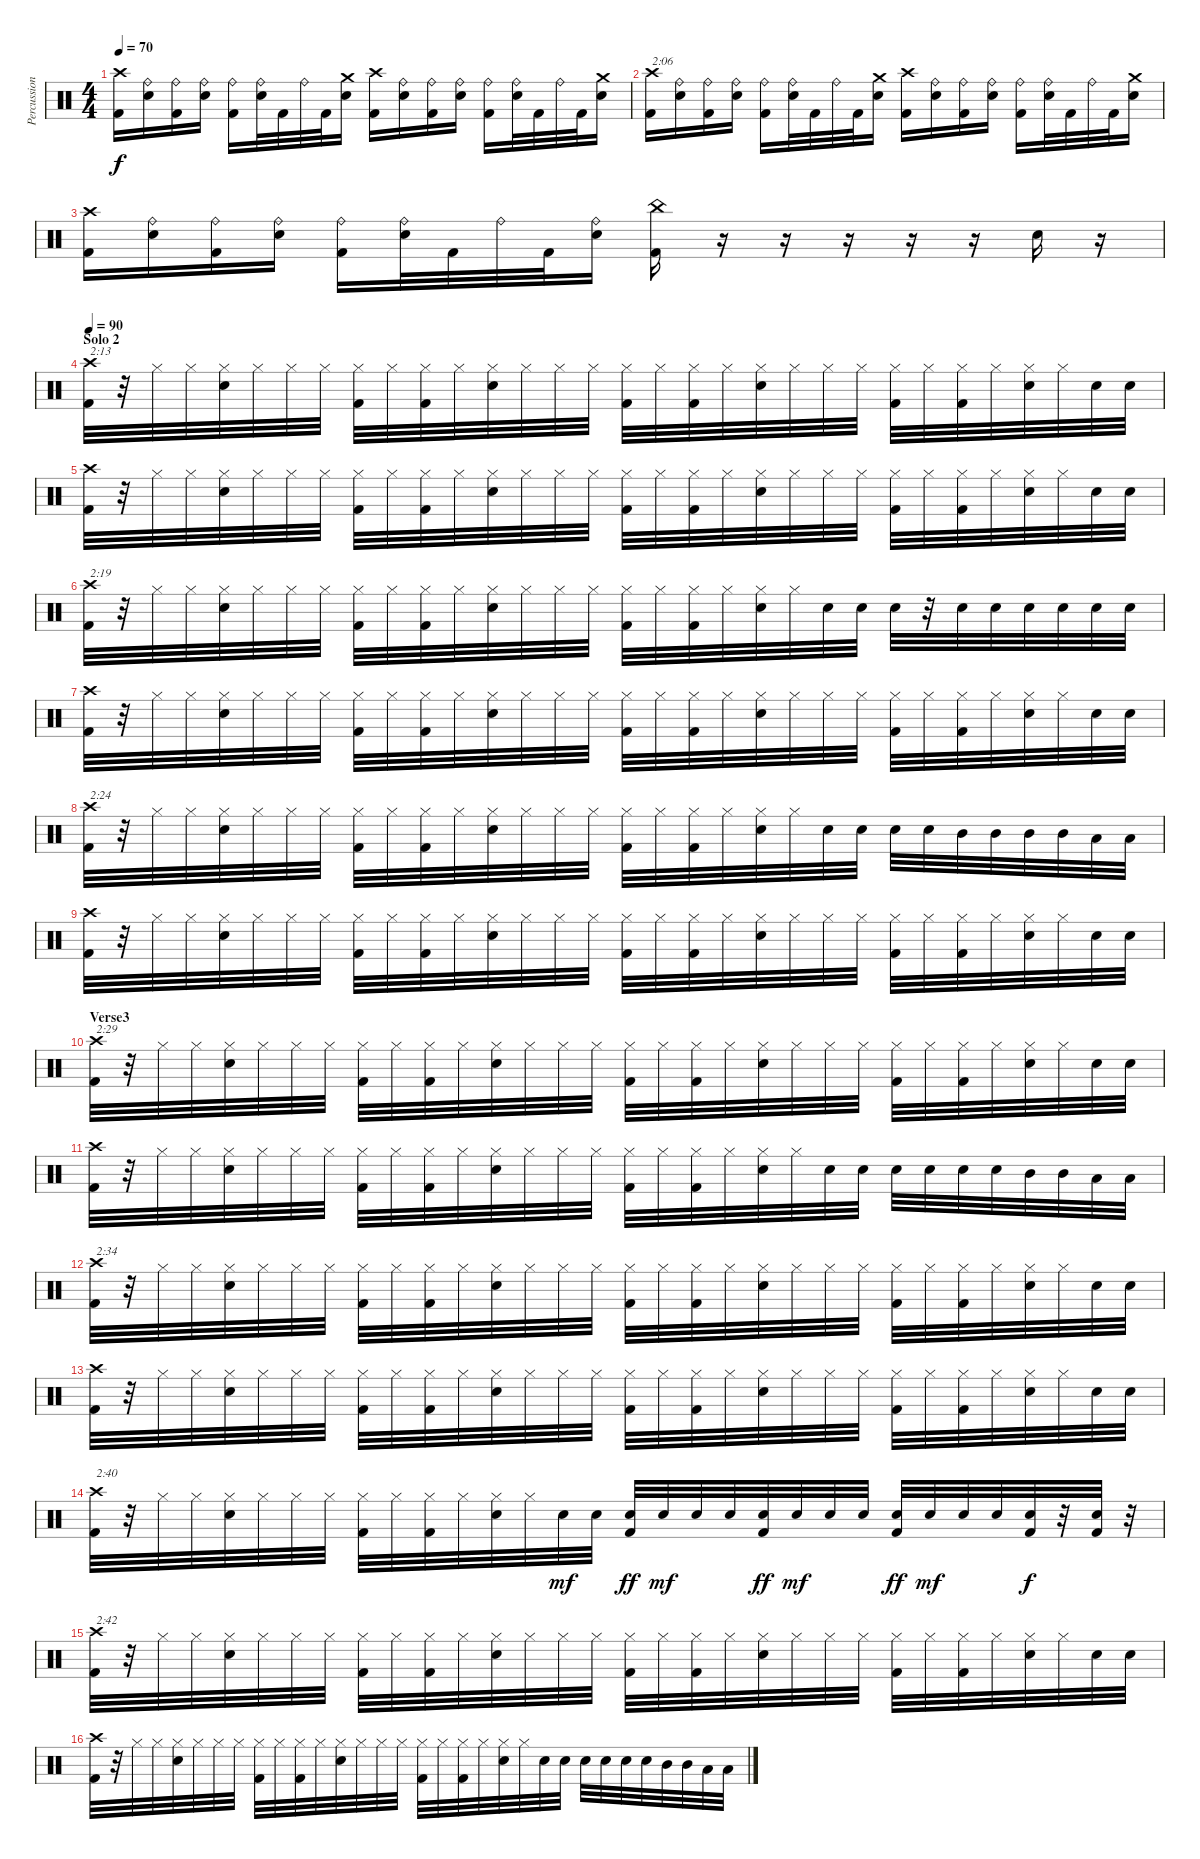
\track ("Percussion" "Percussion") {instrument percussion}
\staff {score}
\articulation defaults
\ts (4 4)
\tempo 70
\clef neutral
\ks c
("Crash high (hit)" "Kick (hit) 2").16{dy f} ("Ride (bell)" "Snare (hit) 2").16 ("Ride (bell)" "Kick (hit) 2").16 ("Ride (bell)" "Snare (hit) 2").16 ("Ride (bell)" "Kick (hit) 2").16 ("Ride (bell)" "Snare (hit) 2").32 "Kick (hit) 2".32 "Ride (bell)".32 "Kick (hit) 2".32 ("Crash medium (hit)" "Snare (hit) 2").16 ("Crash high (hit)" "Kick (hit) 2").16 ("Ride (bell)" "Snare (hit) 2").16 ("Ride (bell)" "Kick (hit) 2").16 ("Ride (bell)" "Snare (hit) 2").16 ("Ride (bell)" "Kick (hit) 2").16 ("Ride (bell)" "Snare (hit) 2").32 "Kick (hit) 2".32 "Ride (bell)".32 "Kick (hit) 2".32 ("Crash medium (hit)" "Snare (hit) 2").16 |
("Crash high (hit)" "Kick (hit) 2").16{txt "2:06"} ("Ride (bell)" "Snare (hit) 2").16 ("Ride (bell)" "Kick (hit) 2").16 ("Ride (bell)" "Snare (hit) 2").16 ("Ride (bell)" "Kick (hit) 2").16 ("Ride (bell)" "Snare (hit) 2").32 "Kick (hit) 2".32 "Ride (bell)".32 "Kick (hit) 2".32 ("Crash medium (hit)" "Snare (hit) 2").16 ("Crash high (hit)" "Kick (hit) 2").16 ("Ride (bell)" "Snare (hit) 2").16 ("Ride (bell)" "Kick (hit) 2").16 ("Ride (bell)" "Snare (hit) 2").16 ("Ride (bell)" "Kick (hit) 2").16 ("Ride (bell)" "Snare (hit) 2").32 "Kick (hit) 2".32 "Ride (bell)".32 "Kick (hit) 2".32 ("Crash medium (hit)" "Snare (hit) 2").16 |
("Crash high (hit)" "Kick (hit) 2").16 ("Ride (bell)" "Snare (hit) 2").16 ("Ride (bell)" "Kick (hit) 2").16 ("Ride (bell)" "Snare (hit) 2").16 ("Ride (bell)" "Kick (hit) 2").16 ("Ride (bell)" "Snare (hit) 2").32 "Kick (hit) 2".32 "Ride (bell)".32 "Kick (hit) 2".32 ("Ride (bell)" "Snare (hit) 2").16 ("China (hit)" "Kick (hit) 2").16 r.16 r.16 r.16 r.16 r.16 "Snare (hit) 2".16 r.16 |
\section ("" "Solo 2")
\tempo 90
("Crash high (hit)" "Kick (hit) 2").32{txt "2:13"} r.32 "Hi-Hat (closed)".32 "Hi-Hat (closed)".32 ("Hi-Hat (closed)" "Snare (hit) 2").32 "Hi-Hat (closed)".32 "Hi-Hat (closed)".32 "Hi-Hat (closed)".32 ("Hi-Hat (closed)" "Kick (hit) 2").32 "Hi-Hat (closed)".32 ("Hi-Hat (closed)" "Kick (hit) 2").32 "Hi-Hat (closed)".32 ("Hi-Hat (closed)" "Snare (hit) 2").32 "Hi-Hat (closed)".32 "Hi-Hat (closed)".32 "Hi-Hat (closed)".32 ("Hi-Hat (closed)" "Kick (hit) 2").32 "Hi-Hat (closed)".32 ("Hi-Hat (closed)" "Kick (hit) 2").32 "Hi-Hat (closed)".32 ("Hi-Hat (closed)" "Snare (hit) 2").32 "Hi-Hat (closed)".32 "Hi-Hat (closed)".32 "Hi-Hat (closed)".32 ("Hi-Hat (closed)" "Kick (hit) 2").32 "Hi-Hat (closed)".32 ("Hi-Hat (closed)" "Kick (hit) 2").32 "Hi-Hat (closed)".32 ("Hi-Hat (closed)" "Snare (hit) 2").32 "Hi-Hat (closed)".32 "Snare (hit) 2".32 "Snare (hit) 2".32 |
("Crash high (hit)" "Kick (hit) 2").32 r.32 "Hi-Hat (closed)".32 "Hi-Hat (closed)".32 ("Hi-Hat (closed)" "Snare (hit) 2").32 "Hi-Hat (closed)".32 "Hi-Hat (closed)".32 "Hi-Hat (closed)".32 ("Hi-Hat (closed)" "Kick (hit) 2").32 "Hi-Hat (closed)".32 ("Hi-Hat (closed)" "Kick (hit) 2").32 "Hi-Hat (closed)".32 ("Hi-Hat (closed)" "Snare (hit) 2").32 "Hi-Hat (closed)".32 "Hi-Hat (closed)".32 "Hi-Hat (closed)".32 ("Hi-Hat (closed)" "Kick (hit) 2").32 "Hi-Hat (closed)".32 ("Hi-Hat (closed)" "Kick (hit) 2").32 "Hi-Hat (closed)".32 ("Hi-Hat (closed)" "Snare (hit) 2").32 "Hi-Hat (closed)".32 "Hi-Hat (closed)".32 "Hi-Hat (closed)".32 ("Hi-Hat (closed)" "Kick (hit) 2").32 "Hi-Hat (closed)".32 ("Hi-Hat (closed)" "Kick (hit) 2").32 "Hi-Hat (closed)".32 ("Hi-Hat (closed)" "Snare (hit) 2").32 "Hi-Hat (closed)".32 "Snare (hit) 2".32 "Snare (hit) 2".32 |
("Crash high (hit)" "Kick (hit) 2").32{txt "2:19"} r.32 "Hi-Hat (closed)".32 "Hi-Hat (closed)".32 ("Hi-Hat (closed)" "Snare (hit) 2").32 "Hi-Hat (closed)".32 "Hi-Hat (closed)".32 "Hi-Hat (closed)".32 ("Hi-Hat (closed)" "Kick (hit) 2").32 "Hi-Hat (closed)".32 ("Hi-Hat (closed)" "Kick (hit) 2").32 "Hi-Hat (closed)".32 ("Hi-Hat (closed)" "Snare (hit) 2").32 "Hi-Hat (closed)".32 "Hi-Hat (closed)".32 "Hi-Hat (closed)".32 ("Hi-Hat (closed)" "Kick (hit) 2").32 "Hi-Hat (closed)".32 ("Hi-Hat (closed)" "Kick (hit) 2").32 "Hi-Hat (closed)".32 ("Hi-Hat (closed)" "Snare (hit) 2").32 "Hi-Hat (closed)".32 "Snare (hit) 2".32 "Snare (hit) 2".32 "Snare (hit) 2".32 r.32 "Snare (hit) 2".32 "Snare (hit) 2".32 "Snare (hit) 2".32 "Snare (hit) 2".32 "Snare (hit) 2".32 "Snare (hit) 2".32 |
("Crash high (hit)" "Kick (hit) 2").32 r.32 "Hi-Hat (closed)".32 "Hi-Hat (closed)".32 ("Hi-Hat (closed)" "Snare (hit) 2").32 "Hi-Hat (closed)".32 "Hi-Hat (closed)".32 "Hi-Hat (closed)".32 ("Hi-Hat (closed)" "Kick (hit) 2").32 "Hi-Hat (closed)".32 ("Hi-Hat (closed)" "Kick (hit) 2").32 "Hi-Hat (closed)".32 ("Hi-Hat (closed)" "Snare (hit) 2").32 "Hi-Hat (closed)".32 "Hi-Hat (closed)".32 "Hi-Hat (closed)".32 ("Hi-Hat (closed)" "Kick (hit) 2").32 "Hi-Hat (closed)".32 ("Hi-Hat (closed)" "Kick (hit) 2").32 "Hi-Hat (closed)".32 ("Hi-Hat (closed)" "Snare (hit) 2").32 "Hi-Hat (closed)".32 "Hi-Hat (closed)".32 "Hi-Hat (closed)".32 ("Hi-Hat (closed)" "Kick (hit) 2").32 "Hi-Hat (closed)".32 ("Hi-Hat (closed)" "Kick (hit) 2").32 "Hi-Hat (closed)".32 ("Hi-Hat (closed)" "Snare (hit) 2").32 "Hi-Hat (closed)".32 "Snare (hit) 2".32 "Snare (hit) 2".32 |
("Crash high (hit)" "Kick (hit) 2").32{txt "2:24"} r.32 "Hi-Hat (closed)".32 "Hi-Hat (closed)".32 ("Hi-Hat (closed)" "Snare (hit) 2").32 "Hi-Hat (closed)".32 "Hi-Hat (closed)".32 "Hi-Hat (closed)".32 ("Hi-Hat (closed)" "Kick (hit) 2").32 "Hi-Hat (closed)".32 ("Hi-Hat (closed)" "Kick (hit) 2").32 "Hi-Hat (closed)".32 ("Hi-Hat (closed)" "Snare (hit) 2").32 "Hi-Hat (closed)".32 "Hi-Hat (closed)".32 "Hi-Hat (closed)".32 ("Hi-Hat (closed)" "Kick (hit) 2").32 "Hi-Hat (closed)".32 ("Hi-Hat (closed)" "Kick (hit) 2").32 "Hi-Hat (closed)".32 ("Hi-Hat (closed)" "Snare (hit) 2").32 "Hi-Hat (closed)".32 "Snare (hit) 2".32 "Snare (hit) 2".32 "Snare (hit) 2".32 "Snare (hit) 2".32 "Mid Tom (hit)".32 "Mid Tom (hit)".32 "Mid Tom (hit)".32 "Mid Tom (hit)".32 "Low Tom (hit)".32 "Low Tom (hit)".32 |
("Crash high (hit)" "Kick (hit) 2").32 r.32 "Hi-Hat (closed)".32 "Hi-Hat (closed)".32 ("Hi-Hat (closed)" "Snare (hit) 2").32 "Hi-Hat (closed)".32 "Hi-Hat (closed)".32 "Hi-Hat (closed)".32 ("Hi-Hat (closed)" "Kick (hit) 2").32 "Hi-Hat (closed)".32 ("Hi-Hat (closed)" "Kick (hit) 2").32 "Hi-Hat (closed)".32 ("Hi-Hat (closed)" "Snare (hit) 2").32 "Hi-Hat (closed)".32 "Hi-Hat (closed)".32 "Hi-Hat (closed)".32 ("Hi-Hat (closed)" "Kick (hit) 2").32 "Hi-Hat (closed)".32 ("Hi-Hat (closed)" "Kick (hit) 2").32 "Hi-Hat (closed)".32 ("Hi-Hat (closed)" "Snare (hit) 2").32 "Hi-Hat (closed)".32 "Hi-Hat (closed)".32 "Hi-Hat (closed)".32 ("Hi-Hat (closed)" "Kick (hit) 2").32 "Hi-Hat (closed)".32 ("Hi-Hat (closed)" "Kick (hit) 2").32 "Hi-Hat (closed)".32 ("Hi-Hat (closed)" "Snare (hit) 2").32 "Hi-Hat (closed)".32 "Snare (hit) 2".32 "Snare (hit) 2".32 |
\section ("" "Verse3")
("Crash high (hit)" "Kick (hit) 2").32{txt "2:29"} r.32 "Hi-Hat (closed)".32 "Hi-Hat (closed)".32 ("Hi-Hat (closed)" "Snare (hit) 2").32 "Hi-Hat (closed)".32 "Hi-Hat (closed)".32 "Hi-Hat (closed)".32 ("Hi-Hat (closed)" "Kick (hit) 2").32 "Hi-Hat (closed)".32 ("Hi-Hat (closed)" "Kick (hit) 2").32 "Hi-Hat (closed)".32 ("Hi-Hat (closed)" "Snare (hit) 2").32 "Hi-Hat (closed)".32 "Hi-Hat (closed)".32 "Hi-Hat (closed)".32 ("Hi-Hat (closed)" "Kick (hit) 2").32 "Hi-Hat (closed)".32 ("Hi-Hat (closed)" "Kick (hit) 2").32 "Hi-Hat (closed)".32 ("Hi-Hat (closed)" "Snare (hit) 2").32 "Hi-Hat (closed)".32 "Hi-Hat (closed)".32 "Hi-Hat (closed)".32 ("Hi-Hat (closed)" "Kick (hit) 2").32 "Hi-Hat (closed)".32 ("Hi-Hat (closed)" "Kick (hit) 2").32 "Hi-Hat (closed)".32 ("Hi-Hat (closed)" "Snare (hit) 2").32 "Hi-Hat (closed)".32 "Snare (hit) 2".32 "Snare (hit) 2".32 |
("Crash high (hit)" "Kick (hit) 2").32 r.32 "Hi-Hat (closed)".32 "Hi-Hat (closed)".32 ("Hi-Hat (closed)" "Snare (hit) 2").32 "Hi-Hat (closed)".32 "Hi-Hat (closed)".32 "Hi-Hat (closed)".32 ("Hi-Hat (closed)" "Kick (hit) 2").32 "Hi-Hat (closed)".32 ("Hi-Hat (closed)" "Kick (hit) 2").32 "Hi-Hat (closed)".32 ("Hi-Hat (closed)" "Snare (hit) 2").32 "Hi-Hat (closed)".32 "Hi-Hat (closed)".32 "Hi-Hat (closed)".32 ("Hi-Hat (closed)" "Kick (hit) 2").32 "Hi-Hat (closed)".32 ("Hi-Hat (closed)" "Kick (hit) 2").32 "Hi-Hat (closed)".32 ("Hi-Hat (closed)" "Snare (hit) 2").32 "Hi-Hat (closed)".32 "Snare (hit) 2".32 "Snare (hit) 2".32 "Snare (hit) 2".32 "Snare (hit) 2".32 "Snare (hit) 2".32 "Snare (hit) 2".32 "Mid Tom (hit)".32 "Mid Tom (hit)".32 "Low Tom (hit)".32 "Low Tom (hit)".32 |
("Crash high (hit)" "Kick (hit) 2").32{txt "2:34"} r.32 "Hi-Hat (closed)".32 "Hi-Hat (closed)".32 ("Hi-Hat (closed)" "Snare (hit) 2").32 "Hi-Hat (closed)".32 "Hi-Hat (closed)".32 "Hi-Hat (closed)".32 ("Hi-Hat (closed)" "Kick (hit) 2").32 "Hi-Hat (closed)".32 ("Hi-Hat (closed)" "Kick (hit) 2").32 "Hi-Hat (closed)".32 ("Hi-Hat (closed)" "Snare (hit) 2").32 "Hi-Hat (closed)".32 "Hi-Hat (closed)".32 "Hi-Hat (closed)".32 ("Hi-Hat (closed)" "Kick (hit) 2").32 "Hi-Hat (closed)".32 ("Hi-Hat (closed)" "Kick (hit) 2").32 "Hi-Hat (closed)".32 ("Hi-Hat (closed)" "Snare (hit) 2").32 "Hi-Hat (closed)".32 "Hi-Hat (closed)".32 "Hi-Hat (closed)".32 ("Hi-Hat (closed)" "Kick (hit) 2").32 "Hi-Hat (closed)".32 ("Hi-Hat (closed)" "Kick (hit) 2").32 "Hi-Hat (closed)".32 ("Hi-Hat (closed)" "Snare (hit) 2").32 "Hi-Hat (closed)".32 "Snare (hit) 2".32 "Snare (hit) 2".32 |
("Crash high (hit)" "Kick (hit) 2").32 r.32 "Hi-Hat (closed)".32 "Hi-Hat (closed)".32 ("Hi-Hat (closed)" "Snare (hit) 2").32 "Hi-Hat (closed)".32 "Hi-Hat (closed)".32 "Hi-Hat (closed)".32 ("Hi-Hat (closed)" "Kick (hit) 2").32 "Hi-Hat (closed)".32 ("Hi-Hat (closed)" "Kick (hit) 2").32 "Hi-Hat (closed)".32 ("Hi-Hat (closed)" "Snare (hit) 2").32 "Hi-Hat (closed)".32 "Hi-Hat (closed)".32 "Hi-Hat (closed)".32 ("Hi-Hat (closed)" "Kick (hit) 2").32 "Hi-Hat (closed)".32 ("Hi-Hat (closed)" "Kick (hit) 2").32 "Hi-Hat (closed)".32 ("Hi-Hat (closed)" "Snare (hit) 2").32 "Hi-Hat (closed)".32 "Hi-Hat (closed)".32 "Hi-Hat (closed)".32 ("Hi-Hat (closed)" "Kick (hit) 2").32 "Hi-Hat (closed)".32 ("Hi-Hat (closed)" "Kick (hit) 2").32 "Hi-Hat (closed)".32 ("Hi-Hat (closed)" "Snare (hit) 2").32 "Hi-Hat (closed)".32 "Snare (hit) 2".32 "Snare (hit) 2".32 |
("Crash high (hit)" "Kick (hit) 2").32{txt "2:40"} r.32 "Hi-Hat (closed)".32 "Hi-Hat (closed)".32 ("Hi-Hat (closed)" "Snare (hit) 2").32 "Hi-Hat (closed)".32 "Hi-Hat (closed)".32 "Hi-Hat (closed)".32 ("Hi-Hat (closed)" "Kick (hit) 2").32 "Hi-Hat (closed)".32 ("Hi-Hat (closed)" "Kick (hit) 2").32 "Hi-Hat (closed)".32 ("Hi-Hat (closed)" "Snare (hit) 2").32 "Hi-Hat (closed)".32 "Snare (hit) 2".32{dy mf} "Snare (hit) 2".32 ("Snare (hit) 2" "Kick (hit) 2").32{dy ff} "Snare (hit) 2".32{dy mf} "Snare (hit) 2".32 "Snare (hit) 2".32 ("Snare (hit) 2" "Kick (hit) 2").32{dy ff} "Snare (hit) 2".32{dy mf} "Snare (hit) 2".32 "Snare (hit) 2".32 ("Snare (hit) 2" "Kick (hit) 2").32{dy ff} "Snare (hit) 2".32{dy mf} "Snare (hit) 2".32 "Snare (hit) 2".32 ("Snare (hit) 2" "Kick (hit) 2").32{dy f} r.32 ("Snare (hit) 2" "Kick (hit) 2").32 r.32 |
("Crash high (hit)" "Kick (hit) 2").32{txt "2:42"} r.32 "Hi-Hat (closed)".32 "Hi-Hat (closed)".32 ("Hi-Hat (closed)" "Snare (hit) 2").32 "Hi-Hat (closed)".32 "Hi-Hat (closed)".32 "Hi-Hat (closed)".32 ("Hi-Hat (closed)" "Kick (hit) 2").32 "Hi-Hat (closed)".32 ("Hi-Hat (closed)" "Kick (hit) 2").32 "Hi-Hat (closed)".32 ("Hi-Hat (closed)" "Snare (hit) 2").32 "Hi-Hat (closed)".32 "Hi-Hat (closed)".32 "Hi-Hat (closed)".32 ("Hi-Hat (closed)" "Kick (hit) 2").32 "Hi-Hat (closed)".32 ("Hi-Hat (closed)" "Kick (hit) 2").32 "Hi-Hat (closed)".32 ("Hi-Hat (closed)" "Snare (hit) 2").32 "Hi-Hat (closed)".32 "Hi-Hat (closed)".32 "Hi-Hat (closed)".32 ("Hi-Hat (closed)" "Kick (hit) 2").32 "Hi-Hat (closed)".32 ("Hi-Hat (closed)" "Kick (hit) 2").32 "Hi-Hat (closed)".32 ("Hi-Hat (closed)" "Snare (hit) 2").32 "Hi-Hat (closed)".32 "Snare (hit) 2".32 "Snare (hit) 2".32 |
("Crash high (hit)" "Kick (hit) 2").32 r.32 "Hi-Hat (closed)".32 "Hi-Hat (closed)".32 ("Hi-Hat (closed)" "Snare (hit) 2").32 "Hi-Hat (closed)".32 "Hi-Hat (closed)".32 "Hi-Hat (closed)".32 ("Hi-Hat (closed)" "Kick (hit) 2").32 "Hi-Hat (closed)".32 ("Hi-Hat (closed)" "Kick (hit) 2").32 "Hi-Hat (closed)".32 ("Hi-Hat (closed)" "Snare (hit) 2").32 "Hi-Hat (closed)".32 "Hi-Hat (closed)".32 "Hi-Hat (closed)".32 ("Hi-Hat (closed)" "Kick (hit) 2").32 "Hi-Hat (closed)".32 ("Hi-Hat (closed)" "Kick (hit) 2").32 "Hi-Hat (closed)".32 ("Hi-Hat (closed)" "Snare (hit) 2").32 "Hi-Hat (closed)".32 "Snare (hit) 2".32 "Snare (hit) 2".32 "Snare (hit) 2".32 "Snare (hit) 2".32 "Snare (hit) 2".32 "Snare (hit) 2".32 "Mid Tom (hit)".32 "Mid Tom (hit)".32 "Low Tom (hit)".32 "Low Tom (hit)".32
